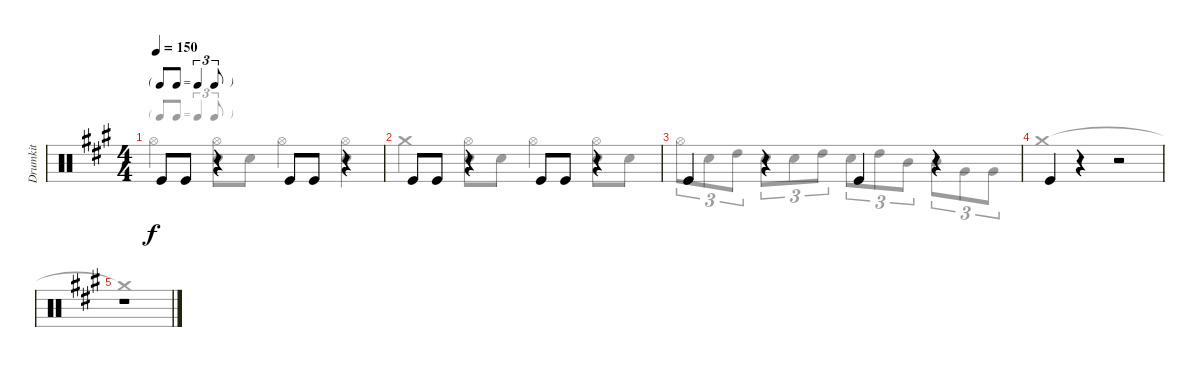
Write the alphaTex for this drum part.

\track ("Drumkit" "Drumkit") {instrument percussion}
\staff {score}
\articulation defaults
\voice
\ts (4 4)
\tf triplet8th
\tempo 150
\clef neutral
\ks a "Kick (hit)".8{dy f} "Kick (hit)".8
r.4 "Kick (hit)".8 "Kick (hit)".8 r.4 |
"Kick (hit)".8 "Kick (hit)".8 r.4 "Kick (hit)".8 "Kick (hit)".8 r.4 |
"Kick (hit)".4 r.4 "Kick (hit)".4 r.4 |
"Kick (hit)".4 r.4 r.2 |
r.1
\voice
\clef neutral
\ottava regular
\simile none
\ks a "Hi-Hat (open)".4{dy f}
("Hi-Hat (open)" "Snare (hit) 2").8 "Snare (hit) 2".8 "Hi-Hat (open)".4 ("Hi-Hat (open)" "Snare (hit) 2").4 |
"Crash medium (hit)".4 ("Hi-Hat (open)" "Snare (hit) 2").8 "Snare (hit) 2".8 "Hi-Hat (open)".4 ("Hi-Hat (open)" "Snare (hit) 2").8 "Snare (hit) 2".8 |
"Hi-Hat (open)".8{tu (3 2)} "Snare (hit) 2".8{tu (3 2)} "High Tom (hit)".8{tu (3 2)} "Snare (hit) 2".8{tu (3 2)} "Snare (hit) 2".8{tu (3 2)} "High Tom (hit)".8{tu (3 2)} "Snare (hit) 2".8{tu (3 2)} "High Tom (hit)".8{tu (3 2)} "Mid Tom (hit)".8{tu (3 2)} "Mid Tom (hit)".8{tu (3 2)} "Very Low Tom (hit)".8{tu (3 2)} "Very Low Tom (hit)".8{tu (3 2)} |
"Crash medium (hit)".1 |
"Crash medium (hit)"{t}.1
